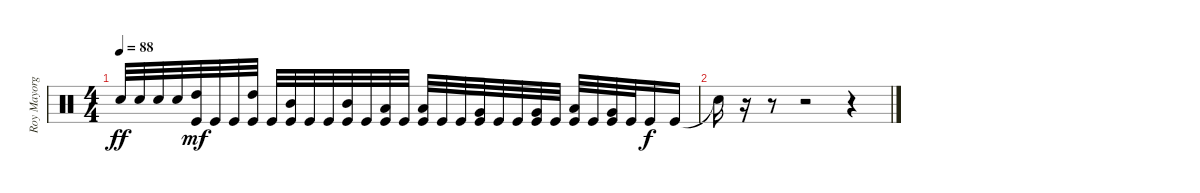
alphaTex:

\track ("Roy Mayorga" "Roy Mayorg") {instrument percussion}
\staff {score}
\articulation defaults
\ts (4 4)
\tempo 88
\clef neutral
\ks c "Snare (hit) 2".32{dy ff} "Snare (hit) 2".32 "Snare (hit) 2".32 "Snare (hit) 2".32
("High Tom (hit)" "Kick (hit)").32{dy mf} "Kick (hit)".32 "Kick (hit)".32 ("High Tom (hit)" "Kick (hit)").32 "Kick (hit)".32 ("Mid Tom (hit)" "Kick (hit)").32 "Kick (hit)".32 "Kick (hit)".32 ("Mid Tom (hit)" "Kick (hit)").32 "Kick (hit)".32 ("Low Tom (hit)" "Kick (hit)").32 "Kick (hit)".32 ("Low Tom (hit)" "Kick (hit)").32 "Kick (hit)".32 "Kick (hit)".32 ("Very Low Tom (hit)" "Kick (hit)").32 "Kick (hit)".32 "Kick (hit)".32 ("Very Low Tom (hit)" "Kick (hit)").32 "Kick (hit)".32 ("Low Tom (hit)" "Kick (hit)").32 "Kick (hit)".32 ("Very Low Tom (hit)" "Kick (hit)").32 "Kick (hit)".32 "Kick (hit)".16{dy f} "Kick (hit)".16 |
"Snare (hit)"{t}.16 r.16 r.8 r.2 r.4
